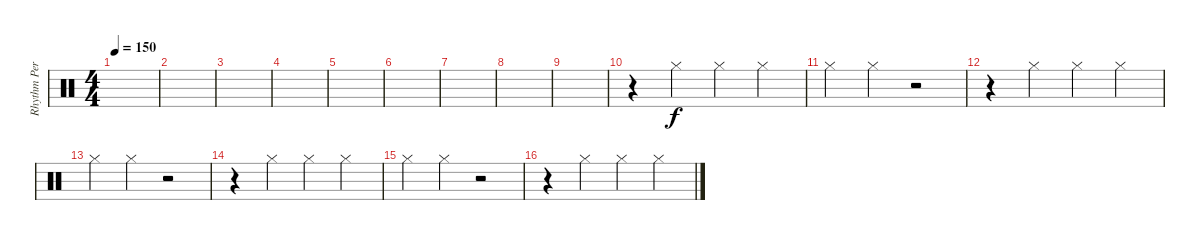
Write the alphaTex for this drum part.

\track ("Rhythm Percussion" "Rhythm Per") {instrument percussion}
\staff {score}
\articulation defaults
\ts (4 4)
\tempo 150
\clef neutral
\ks c
|
|
|
|
|
|
|
|
|
r.4 "Hi-Hat (closed)".4 "Hi-Hat (closed)".4 "Hi-Hat (closed)".4 |
"Hi-Hat (closed)".4 "Hi-Hat (closed)".4 r.2 |
r.4 "Hi-Hat (closed)".4 "Hi-Hat (closed)".4 "Hi-Hat (closed)".4 |
"Hi-Hat (closed)".4 "Hi-Hat (closed)".4 r.2 |
r.4 "Hi-Hat (closed)".4 "Hi-Hat (closed)".4 "Hi-Hat (closed)".4 |
"Hi-Hat (closed)".4 "Hi-Hat (closed)".4 r.2 |
r.4 "Hi-Hat (closed)".4 "Hi-Hat (closed)".4 "Hi-Hat (closed)".4
